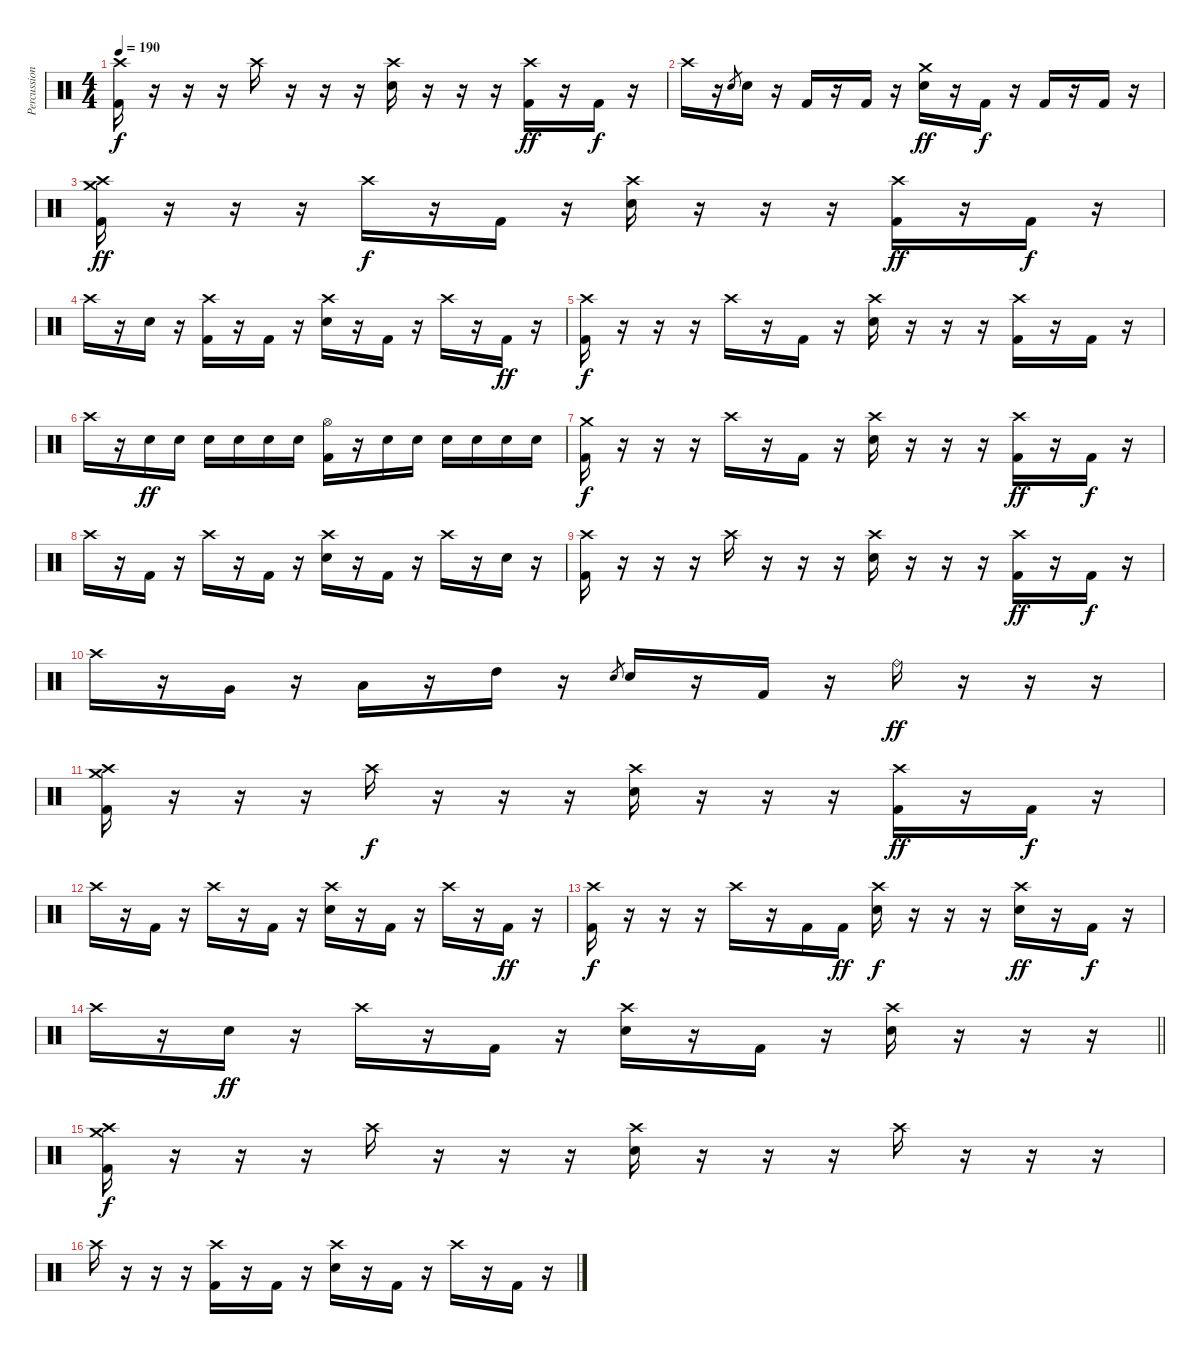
\track ("Percussion" "Percussion") {instrument percussion}
\staff {score}
\articulation defaults
\ts (4 4)
\tempo 190
\clef neutral
\ks c
("Crash high (hit)" "Kick (hit) 2").16{dy f} r.16 r.16 r.16 "Crash high (hit)".16 r.16 r.16 r.16 ("Crash high (hit)" "Snare (hit) 2").16 r.16 r.16 r.16 ("Crash high (hit)" "Kick (hit) 2").16{dy ff} r.16 "Kick (hit) 2".16{dy f} r.16 |
"Crash high (hit)".16 r.16 "Snare (hit) 2".8{gr} "Snare (hit) 2".16 r.16 "Kick (hit) 2".16 r.16 "Kick (hit) 2".16 r.16 ("Crash medium (hit)" "Snare (hit) 2").16{dy ff} r.16 "Kick (hit) 2".16{dy f} r.16 "Kick (hit) 2".16 r.16 "Kick (hit) 2".16 r.16 |
("Crash high (hit)" "Crash medium (hit)" "Kick (hit) 2").16{dy ff} r.16 r.16 r.16 "Crash high (hit)".16{dy f} r.16 "Kick (hit) 2".16 r.16 ("Crash high (hit)" "Snare (hit) 2").16 r.16 r.16 r.16 ("Crash high (hit)" "Kick (hit) 2").16{dy ff} r.16 "Kick (hit) 2".16{dy f} r.16 |
"Crash high (hit)".16 r.16 "Snare (hit) 2".16 r.16 ("Crash high (hit)" "Kick (hit) 2").16 r.16 "Kick (hit) 2".16 r.16 ("Crash high (hit)" "Snare (hit) 2").16 r.16 "Kick (hit) 2".16 r.16 "Crash high (hit)".16 r.16 "Kick (hit) 2".16{dy ff} r.16 |
("Crash high (hit)" "Kick (hit) 2").16{dy f} r.16 r.16 r.16 "Crash high (hit)".16 r.16 "Kick (hit) 2".16 r.16 ("Crash high (hit)" "Snare (hit) 2").16 r.16 r.16 r.16 ("Crash high (hit)" "Kick (hit) 2").16 r.16 "Kick (hit) 2".16 r.16 |
"Crash high (hit)".16 r.16 "Snare (hit) 2".16{dy ff} "Snare (hit) 2".16 "Snare (hit) 2".16 "Snare (hit) 2".16 "Snare (hit) 2".16 "Snare (hit) 2".16 ("Hi-Hat (open)" "Kick (hit) 2").16 r.16 "Snare (hit) 2".16 "Snare (hit) 2".16 "Snare (hit) 2".16 "Snare (hit) 2".16 "Snare (hit) 2".16 "Snare (hit) 2".16 |
("Crash medium (hit)" "Kick (hit) 2").16{dy f} r.16 r.16 r.16 "Crash high (hit)".16 r.16 "Kick (hit) 2".16 r.16 ("Crash high (hit)" "Snare (hit) 2").16 r.16 r.16 r.16 ("Crash high (hit)" "Kick (hit) 2").16{dy ff} r.16 "Kick (hit) 2".16{dy f} r.16 |
"Crash high (hit)".16 r.16 "Kick (hit) 2".16 r.16 "Crash high (hit)".16 r.16 "Kick (hit) 2".16 r.16 ("Crash high (hit)" "Snare (hit) 2").16 r.16 "Kick (hit) 2".16 r.16 "Crash high (hit)".16 r.16 "Snare (hit) 2".16 r.16 |
("Crash high (hit)" "Kick (hit) 2").16 r.16 r.16 r.16 "Crash high (hit)".16 r.16 r.16 r.16 ("Crash high (hit)" "Snare (hit) 2").16 r.16 r.16 r.16 ("Crash high (hit)" "Kick (hit) 2").16{dy ff} r.16 "Kick (hit) 2".16{dy f} r.16 |
"Crash high (hit)".16 r.16 "Very Low Tom (hit)".16 r.16 "Low Tom (hit)".16 r.16 "High Tom (hit)".16 r.16 "Snare (hit) 2".8{gr} "Snare (hit) 2".16 r.16 "Kick (hit) 2".16 r.16 "Ride (bell)".16{dy ff} r.16 r.16 r.16 |
("Crash high (hit)" "Crash medium (hit)" "Kick (hit) 2").16 r.16 r.16 r.16 "Crash high (hit)".16{dy f} r.16 r.16 r.16 ("Crash high (hit)" "Snare (hit) 2").16 r.16 r.16 r.16 ("Crash high (hit)" "Kick (hit) 2").16{dy ff} r.16 "Kick (hit) 2".16{dy f} r.16 |
"Crash high (hit)".16 r.16 "Kick (hit) 2".16 r.16 "Crash high (hit)".16 r.16 "Kick (hit) 2".16 r.16 ("Crash high (hit)" "Snare (hit) 2").16 r.16 "Kick (hit) 2".16 r.16 "Crash high (hit)".16 r.16 "Kick (hit) 2".16{dy ff} r.16 |
("Crash high (hit)" "Kick (hit) 2").16{dy f} r.16 r.16 r.16 "Crash high (hit)".16 r.16 "Kick (hit) 2".16 "Kick (hit) 2".16{dy ff} ("Crash high (hit)" "Snare (hit) 2").16{dy f} r.16 r.16 r.16 ("Crash high (hit)" "Snare (hit) 2").16{dy ff} r.16 "Kick (hit) 2".16{dy f} r.16 |
\barLineRight lightlight "Crash high (hit)".16
r.16 "Snare (hit) 2".16{dy ff} r.16 "Crash high (hit)".16 r.16 "Kick (hit) 2".16 r.16 ("Crash high (hit)" "Snare (hit) 2").16 r.16 "Kick (hit) 2".16 r.16 ("Crash high (hit)" "Snare (hit) 2").16 r.16 r.16 r.16 |
\section ("" "")
("Crash high (hit)" "Crash medium (hit)" "Kick (hit) 2").16{dy f} r.16 r.16 r.16 "Crash high (hit)".16 r.16 r.16 r.16 ("Crash high (hit)" "Snare (hit) 2").16 r.16 r.16 r.16 "Crash high (hit)".16 r.16 r.16 r.16 |
"Crash high (hit)".16 r.16 r.16 r.16 ("Crash high (hit)" "Kick (hit) 2").16 r.16 "Kick (hit) 2".16 r.16 ("Crash high (hit)" "Snare (hit) 2").16 r.16 "Kick (hit) 2".16 r.16 "Crash high (hit)".16 r.16 "Kick (hit) 2".16 r.16
